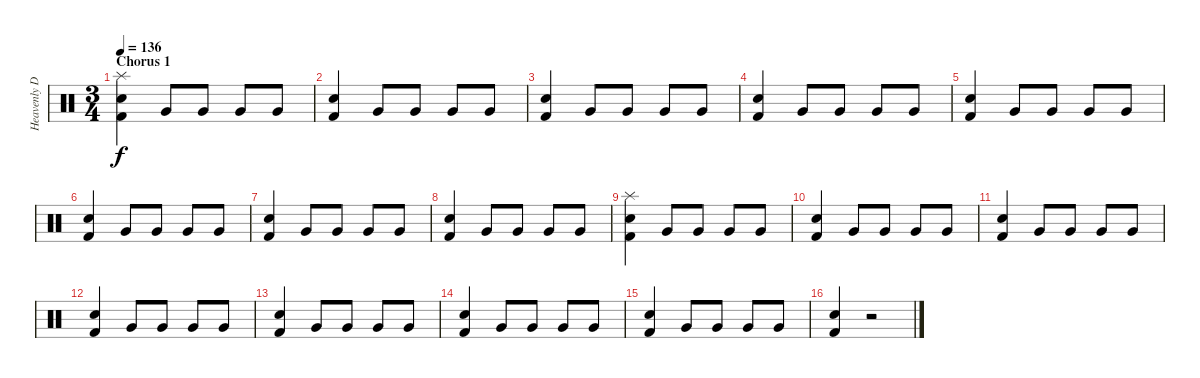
\track ("Heavenly Drums" "Heavenly D") {instrument percussion}
\staff {score}
\articulation defaults
\ts (3 4)
\section ("" "Chorus 1")
\tempo 136
\clef neutral
\ks c
("Splash (hit)" "Snare (hit) 2" "Kick (hit) 2").4{dy f} "Very Low Tom (hit)".8 "Very Low Tom (hit)".8 "Very Low Tom (hit)".8 "Very Low Tom (hit)".8 |
("Snare (hit) 2" "Kick (hit) 2").4 "Very Low Tom (hit)".8 "Very Low Tom (hit)".8 "Very Low Tom (hit)".8 "Very Low Tom (hit)".8 |
("Snare (hit) 2" "Kick (hit) 2").4 "Very Low Tom (hit)".8 "Very Low Tom (hit)".8 "Very Low Tom (hit)".8 "Very Low Tom (hit)".8 |
("Snare (hit) 2" "Kick (hit) 2").4 "Very Low Tom (hit)".8 "Very Low Tom (hit)".8 "Very Low Tom (hit)".8 "Very Low Tom (hit)".8 |
("Snare (hit) 2" "Kick (hit) 2").4 "Very Low Tom (hit)".8 "Very Low Tom (hit)".8 "Very Low Tom (hit)".8 "Very Low Tom (hit)".8 |
("Snare (hit) 2" "Kick (hit) 2").4 "Very Low Tom (hit)".8 "Very Low Tom (hit)".8 "Very Low Tom (hit)".8 "Very Low Tom (hit)".8 |
("Snare (hit) 2" "Kick (hit) 2").4 "Very Low Tom (hit)".8 "Very Low Tom (hit)".8 "Very Low Tom (hit)".8 "Very Low Tom (hit)".8 |
("Snare (hit) 2" "Kick (hit) 2").4 "Very Low Tom (hit)".8 "Very Low Tom (hit)".8 "Very Low Tom (hit)".8 "Very Low Tom (hit)".8 |
("Splash (hit)" "Snare (hit) 2" "Kick (hit) 2").4 "Very Low Tom (hit)".8 "Very Low Tom (hit)".8 "Very Low Tom (hit)".8 "Very Low Tom (hit)".8 |
("Snare (hit) 2" "Kick (hit) 2").4 "Very Low Tom (hit)".8 "Very Low Tom (hit)".8 "Very Low Tom (hit)".8 "Very Low Tom (hit)".8 |
("Snare (hit) 2" "Kick (hit) 2").4 "Very Low Tom (hit)".8 "Very Low Tom (hit)".8 "Very Low Tom (hit)".8 "Very Low Tom (hit)".8 |
("Snare (hit) 2" "Kick (hit) 2").4 "Very Low Tom (hit)".8 "Very Low Tom (hit)".8 "Very Low Tom (hit)".8 "Very Low Tom (hit)".8 |
("Snare (hit) 2" "Kick (hit) 2").4 "Very Low Tom (hit)".8 "Very Low Tom (hit)".8 "Very Low Tom (hit)".8 "Very Low Tom (hit)".8 |
("Snare (hit) 2" "Kick (hit) 2").4 "Very Low Tom (hit)".8 "Very Low Tom (hit)".8 "Very Low Tom (hit)".8 "Very Low Tom (hit)".8 |
("Snare (hit) 2" "Kick (hit) 2").4 "Very Low Tom (hit)".8 "Very Low Tom (hit)".8 "Very Low Tom (hit)".8 "Very Low Tom (hit)".8 |
("Snare (hit) 2" "Kick (hit) 2").4 r.2
